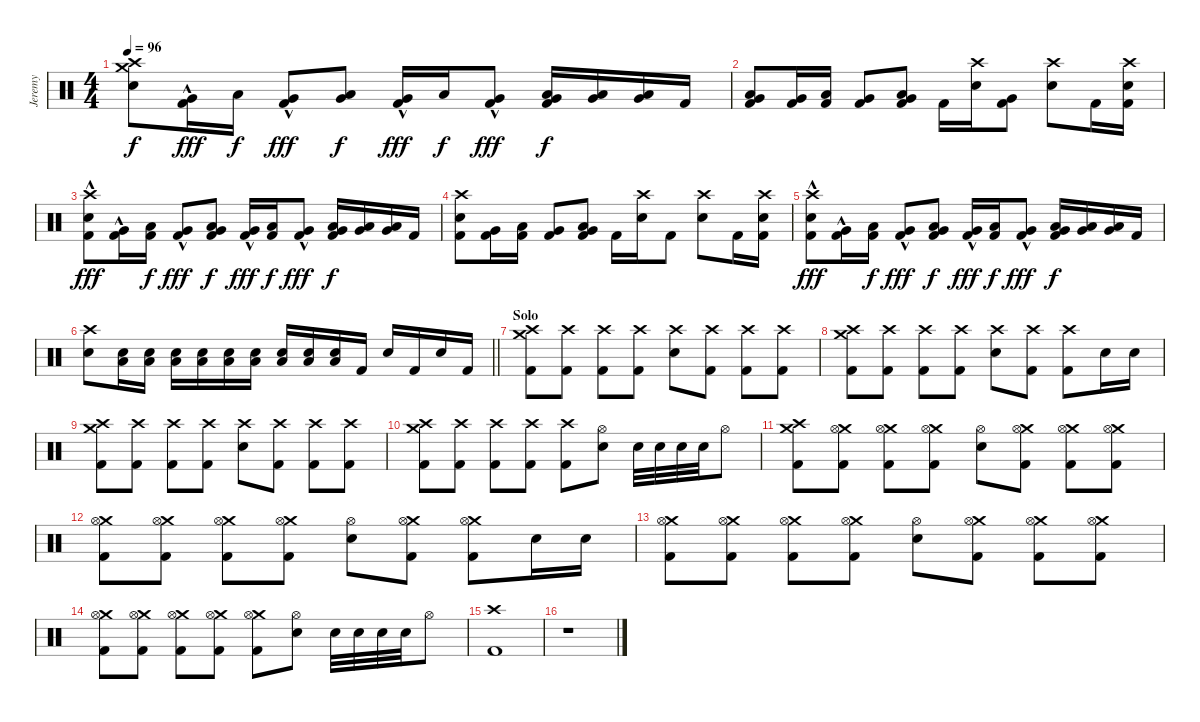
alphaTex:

\track ("Jeremy" "Jeremy") {instrument percussion}
\staff {score}
\articulation defaults
\ts (4 4)
\tempo 96
\clef neutral
\ks c
("Crash high (hit)" "Crash medium (hit)" "Snare (hit) 2").8{dy f} ("Very Low Tom (hit)" "Kick (hit) 2"{hac}).16{dy fff} "Low Tom (hit)".16{dy f} ("Very Low Tom (hit)" "Kick (hit) 2"{hac}).8{dy fff} ("Low Tom (hit)" "Very Low Tom (hit)").8{dy f} ("Very Low Tom (hit)" "Kick (hit) 2"{hac}).16{dy fff} "Low Tom (hit)".16{dy f} ("Very Low Tom (hit)" "Kick (hit) 2"{hac}).8{dy fff} ("Low Tom (hit)" "Very Low Tom (hit)" "Kick (hit) 2").16{dy f} ("Low Tom (hit)" "Very Low Tom (hit)").16 ("Low Tom (hit)" "Very Low Tom (hit)").16 "Kick (hit) 2".16 |
("Low Tom (hit)" "Very Low Tom (hit)" "Kick (hit) 2").8 ("Very Low Tom (hit)" "Kick (hit) 2").16 ("Low Tom (hit)" "Kick (hit) 2").16 ("Very Low Tom (hit)" "Kick (hit) 2").8 ("Low Tom (hit)" "Very Low Tom (hit)" "Kick (hit) 2").8 "Kick (hit) 2".16 ("Crash high (hit)" "Snare (hit) 2").16 ("Very Low Tom (hit)" "Kick (hit) 2").8 ("Crash high (hit)" "Snare (hit) 2").8 "Kick (hit) 2".16 ("Crash high (hit)" "Snare (hit) 2" "Kick (hit) 2").16 |
("Crash high (hit)" "Snare (hit) 2" "Kick (hit) 2"{hac}).8{dy fff} ("Very Low Tom (hit)" "Kick (hit) 2"{hac}).16 ("Low Tom (hit)" "Kick (hit) 2").16{dy f} ("Very Low Tom (hit)" "Kick (hit) 2"{hac}).8{dy fff} ("Low Tom (hit)" "Very Low Tom (hit)" "Kick (hit) 2").8{dy f} ("Very Low Tom (hit)" "Kick (hit) 2"{hac}).16{dy fff} ("Low Tom (hit)" "Kick (hit) 2").16{dy f} ("Very Low Tom (hit)" "Kick (hit) 2"{hac}).8{dy fff} ("Low Tom (hit)" "Very Low Tom (hit)" "Kick (hit) 2").16{dy f} ("Low Tom (hit)" "Very Low Tom (hit)").16 ("Low Tom (hit)" "Very Low Tom (hit)").16 "Kick (hit) 2".16 |
("Crash high (hit)" "Snare (hit) 2" "Kick (hit) 2").8 ("Very Low Tom (hit)" "Kick (hit) 2").16 ("Low Tom (hit)" "Kick (hit) 2").16 ("Very Low Tom (hit)" "Kick (hit) 2").8 ("Low Tom (hit)" "Very Low Tom (hit)" "Kick (hit) 2").8 "Kick (hit) 2".16 ("Crash high (hit)" "Snare (hit) 2").16 "Kick (hit) 2".8 ("Crash high (hit)" "Snare (hit) 2").8 "Kick (hit) 2".16 ("Crash high (hit)" "Snare (hit) 2" "Kick (hit) 2").16 |
("Crash high (hit)" "Snare (hit) 2" "Kick (hit) 2"{hac}).8{dy fff} ("Very Low Tom (hit)" "Kick (hit) 2"{hac}).16 ("Low Tom (hit)" "Kick (hit) 2").16{dy f} ("Very Low Tom (hit)" "Kick (hit) 2"{hac}).8{dy fff} ("Low Tom (hit)" "Very Low Tom (hit)" "Kick (hit) 2").8{dy f} ("Very Low Tom (hit)" "Kick (hit) 2"{hac}).16{dy fff} ("Low Tom (hit)" "Kick (hit) 2").16{dy f} ("Very Low Tom (hit)" "Kick (hit) 2"{hac}).8{dy fff} ("Low Tom (hit)" "Very Low Tom (hit)" "Kick (hit) 2").16{dy f} ("Low Tom (hit)" "Very Low Tom (hit)").16 ("Low Tom (hit)" "Very Low Tom (hit)").16 "Kick (hit) 2".16 |
\barLineRight lightlight
("Crash high (hit)" "Snare (hit) 2").8 ("Snare (hit) 2" "Low Floor Tom (hit)").16 ("Snare (hit) 2" "Low Floor Tom (hit)").16 ("Snare (hit) 2" "Low Floor Tom (hit)").16 ("Snare (hit) 2" "Low Floor Tom (hit)").16 ("Snare (hit) 2" "Low Floor Tom (hit)").16 ("Snare (hit) 2" "Low Floor Tom (hit)").16 ("Snare (hit) 2" "Low Floor Tom (hit)").16 ("Snare (hit) 2" "Low Floor Tom (hit)").16 ("Snare (hit) 2" "Low Floor Tom (hit)").16 "Kick (hit) 2".16 "Snare (hit) 2".16 "Kick (hit) 2".16 "Snare (hit) 2".16 "Kick (hit) 2".16 |
\section ("" "Solo")
("Crash high (hit)" "Crash medium (hit)" "Kick (hit) 2").8 ("Crash high (hit)" "Kick (hit) 2").8 ("Crash high (hit)" "Kick (hit) 2").8 ("Crash high (hit)" "Kick (hit) 2").8 ("Crash high (hit)" "Snare (hit) 2").8 ("Crash high (hit)" "Kick (hit) 2").8 ("Crash high (hit)" "Kick (hit) 2").8 ("Crash high (hit)" "Kick (hit) 2").8 |
("Crash high (hit)" "Crash medium (hit)" "Kick (hit) 2").8 ("Crash high (hit)" "Kick (hit) 2").8 ("Crash high (hit)" "Kick (hit) 2").8 ("Crash high (hit)" "Kick (hit) 2").8 ("Crash high (hit)" "Snare (hit) 2").8 ("Crash high (hit)" "Kick (hit) 2").8 ("Crash high (hit)" "Kick (hit) 2").8 "Snare (hit) 2".16 "Snare (hit) 2".16 |
("Crash high (hit)" "Crash medium (hit)" "Kick (hit) 2").8 ("Crash high (hit)" "Kick (hit) 2").8 ("Crash high (hit)" "Kick (hit) 2").8 ("Crash high (hit)" "Kick (hit) 2").8 ("Crash high (hit)" "Snare (hit) 2").8 ("Crash high (hit)" "Kick (hit) 2").8 ("Crash high (hit)" "Kick (hit) 2").8 ("Crash high (hit)" "Kick (hit) 2").8 |
("Crash high (hit)" "Crash medium (hit)" "Kick (hit) 2").8 ("Crash high (hit)" "Kick (hit) 2").8 ("Crash high (hit)" "Kick (hit) 2").8 ("Crash high (hit)" "Kick (hit) 2").8 ("Crash high (hit)" "Kick (hit) 2").8 ("Hi-Hat (open)" "Snare (hit) 2").8 "Snare (hit) 2".32 "Snare (hit) 2".32 "Snare (hit) 2".32 "Snare (hit) 2".32 "Hi-Hat (open)".8 |
("Crash high (hit)" "Crash medium (hit)" "Kick (hit) 2").8 ("Crash medium (hit)" "Hi-Hat (open)" "Kick (hit) 2").8 ("Crash medium (hit)" "Hi-Hat (open)" "Kick (hit) 2").8 ("Crash medium (hit)" "Hi-Hat (open)" "Kick (hit) 2").8 ("Hi-Hat (open)" "Snare (hit) 2").8 ("Crash medium (hit)" "Hi-Hat (open)" "Kick (hit) 2").8 ("Crash medium (hit)" "Hi-Hat (open)" "Kick (hit) 2").8 ("Crash medium (hit)" "Hi-Hat (open)" "Kick (hit) 2").8 |
("Crash medium (hit)" "Hi-Hat (open)" "Kick (hit) 2").8 ("Crash medium (hit)" "Hi-Hat (open)" "Kick (hit) 2").8 ("Crash medium (hit)" "Hi-Hat (open)" "Kick (hit) 2").8 ("Crash medium (hit)" "Hi-Hat (open)" "Kick (hit) 2").8 ("Hi-Hat (open)" "Snare (hit) 2").8 ("Crash medium (hit)" "Hi-Hat (open)" "Kick (hit) 2").8 ("Crash medium (hit)" "Hi-Hat (open)" "Kick (hit) 2").8 "Snare (hit) 2".16 "Snare (hit) 2".16 |
("Crash medium (hit)" "Hi-Hat (open)" "Kick (hit) 2").8 ("Crash medium (hit)" "Hi-Hat (open)" "Kick (hit) 2").8 ("Crash medium (hit)" "Hi-Hat (open)" "Kick (hit) 2").8 ("Crash medium (hit)" "Hi-Hat (open)" "Kick (hit) 2").8 ("Hi-Hat (open)" "Snare (hit) 2").8 ("Crash medium (hit)" "Hi-Hat (open)" "Kick (hit) 2").8 ("Crash medium (hit)" "Hi-Hat (open)" "Kick (hit) 2").8 ("Crash medium (hit)" "Hi-Hat (open)" "Kick (hit) 2").8 |
("Crash medium (hit)" "Hi-Hat (open)" "Kick (hit) 2").8 ("Crash medium (hit)" "Hi-Hat (open)" "Kick (hit) 2").8 ("Crash medium (hit)" "Hi-Hat (open)" "Kick (hit) 2").8 ("Crash medium (hit)" "Hi-Hat (open)" "Kick (hit) 2").8 ("Crash medium (hit)" "Hi-Hat (open)" "Kick (hit) 2").8 ("Hi-Hat (open)" "Snare (hit) 2").8 "Snare (hit) 2".32 "Snare (hit) 2".32 "Snare (hit) 2".32 "Snare (hit) 2".32 "Hi-Hat (open)".8 |
("Crash high (hit)" "Kick (hit) 2").1 |
r.1
